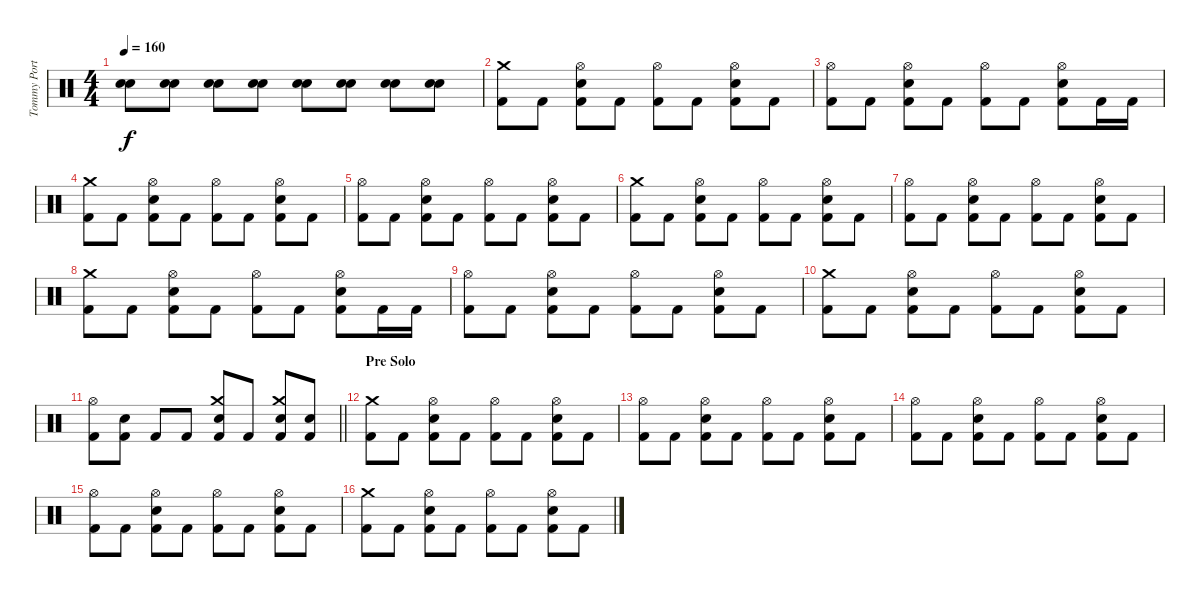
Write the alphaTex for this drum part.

\track ("Tommy Portino" "Tommy Port") {instrument percussion}
\staff {score}
\articulation defaults
\ts (4 4)
\tempo 160
\clef neutral
\ks c
("Snare (hit) 2" "Snare (hit) 2").8{dy f} ("Snare (hit) 2" "Snare (hit) 2").8 ("Snare (hit) 2" "Snare (hit) 2").8 ("Snare (hit) 2" "Snare (hit) 2").8 ("Snare (hit) 2" "Snare (hit) 2").8 ("Snare (hit) 2" "Snare (hit) 2").8 ("Snare (hit) 2" "Snare (hit) 2").8 ("Snare (hit) 2" "Snare (hit) 2").8 |
("Crash medium (hit)" "Kick (hit) 2").8 "Kick (hit) 2".8 ("Hi-Hat (open)" "Snare (hit) 2" "Kick (hit) 2").8 "Kick (hit) 2".8 ("Hi-Hat (open)" "Kick (hit) 2").8 "Kick (hit) 2".8 ("Hi-Hat (open)" "Snare (hit) 2" "Kick (hit) 2").8 "Kick (hit) 2".8 |
("Hi-Hat (open)" "Kick (hit) 2").8 "Kick (hit) 2".8 ("Hi-Hat (open)" "Snare (hit) 2" "Kick (hit) 2").8 "Kick (hit) 2".8 ("Hi-Hat (open)" "Kick (hit) 2").8 "Kick (hit) 2".8 ("Hi-Hat (open)" "Snare (hit) 2" "Kick (hit) 2").8 "Kick (hit) 2".16 "Kick (hit) 2".16 |
("Crash medium (hit)" "Kick (hit) 2").8 "Kick (hit) 2".8 ("Hi-Hat (open)" "Snare (hit) 2" "Kick (hit) 2").8 "Kick (hit) 2".8 ("Hi-Hat (open)" "Kick (hit) 2").8 "Kick (hit) 2".8 ("Hi-Hat (open)" "Snare (hit) 2" "Kick (hit) 2").8 "Kick (hit) 2".8 |
("Hi-Hat (open)" "Kick (hit) 2").8 "Kick (hit) 2".8 ("Hi-Hat (open)" "Snare (hit) 2" "Kick (hit) 2").8 "Kick (hit) 2".8 ("Hi-Hat (open)" "Kick (hit) 2").8 "Kick (hit) 2".8 ("Hi-Hat (open)" "Snare (hit) 2" "Kick (hit) 2").8 "Kick (hit) 2".8 |
("Crash medium (hit)" "Kick (hit) 2").8 "Kick (hit) 2".8 ("Hi-Hat (open)" "Snare (hit) 2" "Kick (hit) 2").8 "Kick (hit) 2".8 ("Hi-Hat (open)" "Kick (hit) 2").8 "Kick (hit) 2".8 ("Hi-Hat (open)" "Snare (hit) 2" "Kick (hit) 2").8 "Kick (hit) 2".8 |
("Hi-Hat (open)" "Kick (hit) 2").8 "Kick (hit) 2".8 ("Hi-Hat (open)" "Snare (hit) 2" "Kick (hit) 2").8 "Kick (hit) 2".8 ("Hi-Hat (open)" "Kick (hit) 2").8 "Kick (hit) 2".8 ("Hi-Hat (open)" "Snare (hit) 2" "Kick (hit) 2").8 "Kick (hit) 2".8 |
("Crash medium (hit)" "Kick (hit) 2").8 "Kick (hit) 2".8 ("Hi-Hat (open)" "Snare (hit) 2" "Kick (hit) 2").8 "Kick (hit) 2".8 ("Hi-Hat (open)" "Kick (hit) 2").8 "Kick (hit) 2".8 ("Hi-Hat (open)" "Snare (hit) 2" "Kick (hit) 2").8 "Kick (hit) 2".16 "Kick (hit) 2".16 |
("Hi-Hat (open)" "Kick (hit) 2").8 "Kick (hit) 2".8 ("Hi-Hat (open)" "Snare (hit) 2" "Kick (hit) 2").8 "Kick (hit) 2".8 ("Hi-Hat (open)" "Kick (hit) 2").8 "Kick (hit) 2".8 ("Hi-Hat (open)" "Snare (hit) 2" "Kick (hit) 2").8 "Kick (hit) 2".8 |
("Crash medium (hit)" "Kick (hit) 2").8 "Kick (hit) 2".8 ("Hi-Hat (open)" "Snare (hit) 2" "Kick (hit) 2").8 "Kick (hit) 2".8 ("Hi-Hat (open)" "Kick (hit) 2").8 "Kick (hit) 2".8 ("Hi-Hat (open)" "Snare (hit) 2" "Kick (hit) 2").8 "Kick (hit) 2".8 |
\barLineRight lightlight
("Hi-Hat (open)" "Kick (hit) 2").8 ("Snare (hit) 2" "Kick (hit) 2").8 "Kick (hit) 2".8 "Kick (hit) 2".8 ("Crash medium (hit)" "Snare (hit) 2" "Kick (hit) 2").8 "Kick (hit) 2".8 ("Crash medium (hit)" "Snare (hit) 2" "Kick (hit) 2").8 ("Snare (hit) 2" "Kick (hit) 2").8 |
\section ("" "Pre Solo")
("Crash medium (hit)" "Kick (hit) 2").8 "Kick (hit) 2".8 ("Hi-Hat (open)" "Snare (hit) 2" "Kick (hit) 2").8 "Kick (hit) 2".8 ("Hi-Hat (open)" "Kick (hit) 2").8 "Kick (hit) 2".8 ("Hi-Hat (open)" "Snare (hit) 2" "Kick (hit) 2").8 "Kick (hit) 2".8 |
("Hi-Hat (open)" "Kick (hit) 2").8 "Kick (hit) 2".8 ("Hi-Hat (open)" "Snare (hit) 2" "Kick (hit) 2").8 "Kick (hit) 2".8 ("Hi-Hat (open)" "Kick (hit) 2").8 "Kick (hit) 2".8 ("Hi-Hat (open)" "Snare (hit) 2" "Kick (hit) 2").8 "Kick (hit) 2".8 |
("Hi-Hat (open)" "Kick (hit) 2").8 "Kick (hit) 2".8 ("Hi-Hat (open)" "Snare (hit) 2" "Kick (hit) 2").8 "Kick (hit) 2".8 ("Hi-Hat (open)" "Kick (hit) 2").8 "Kick (hit) 2".8 ("Hi-Hat (open)" "Snare (hit) 2" "Kick (hit) 2").8 "Kick (hit) 2".8 |
("Hi-Hat (open)" "Kick (hit) 2").8 "Kick (hit) 2".8 ("Hi-Hat (open)" "Snare (hit) 2" "Kick (hit) 2").8 "Kick (hit) 2".8 ("Hi-Hat (open)" "Kick (hit) 2").8 "Kick (hit) 2".8 ("Hi-Hat (open)" "Snare (hit) 2" "Kick (hit) 2").8 "Kick (hit) 2".8 |
("Crash medium (hit)" "Kick (hit) 2").8 "Kick (hit) 2".8 ("Hi-Hat (open)" "Snare (hit) 2" "Kick (hit) 2").8 "Kick (hit) 2".8 ("Hi-Hat (open)" "Kick (hit) 2").8 "Kick (hit) 2".8 ("Hi-Hat (open)" "Snare (hit) 2" "Kick (hit) 2").8 "Kick (hit) 2".8
